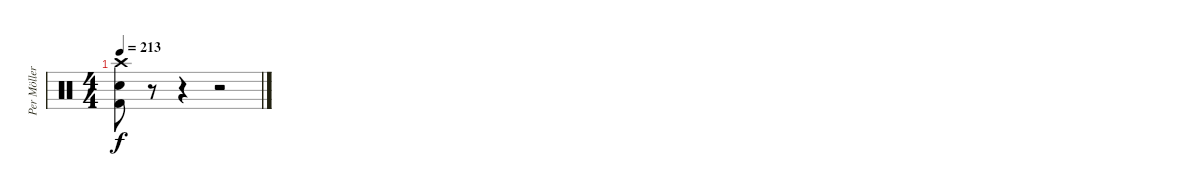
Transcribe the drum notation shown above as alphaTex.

\track ("Per Möller Jensen" "Per Möller") {instrument percussion}
\staff {score}
\articulation defaults
\ts (4 4)
\tempo 213
\clef neutral
\ks c
("Crash high (hit)" "Electric Snare (hit)" "Kick (hit) 2").8{dy f} r.8 r.4 r.2
